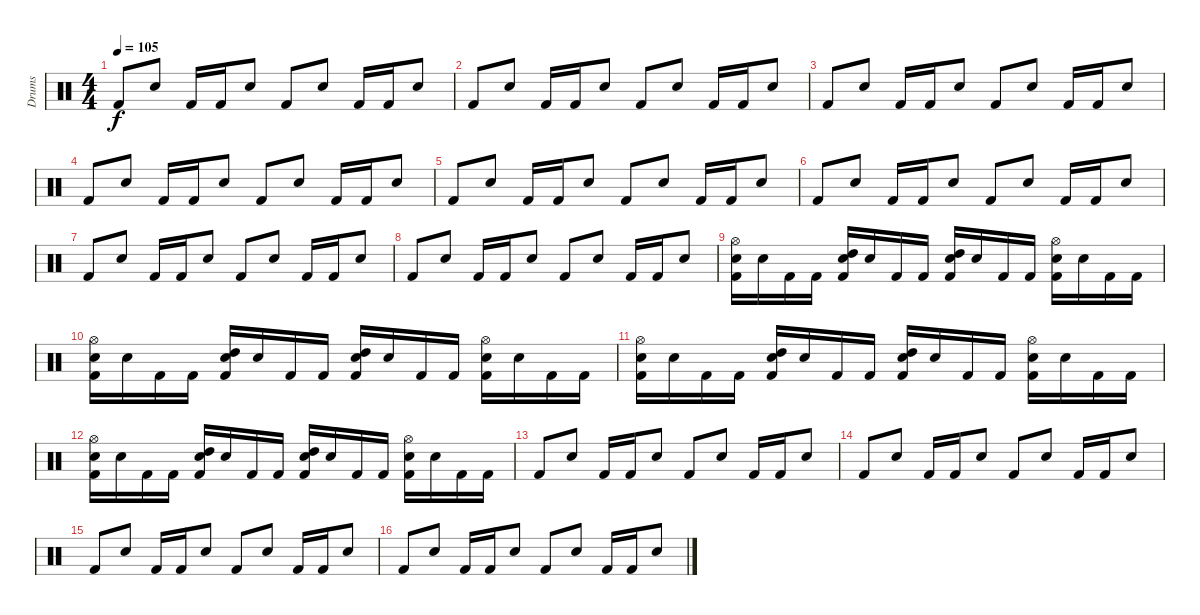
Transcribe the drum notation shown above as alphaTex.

\track ("Drums" "Drums") {instrument percussion}
\staff {score}
\articulation defaults
\ts (4 4)
\tempo 105
\clef neutral
\ks c "Kick (hit) 2".8{dy f} "Snare (hit) 2".8 "Kick (hit) 2".16 "Kick (hit) 2".16 "Snare (hit) 2".8 "Kick (hit) 2".8 "Snare (hit) 2".8 "Kick (hit) 2".16 "Kick (hit) 2".16 "Snare (hit) 2".8
|
"Kick (hit) 2".8 "Snare (hit) 2".8 "Kick (hit) 2".16 "Kick (hit) 2".16 "Snare (hit) 2".8 "Kick (hit) 2".8 "Snare (hit) 2".8 "Kick (hit) 2".16 "Kick (hit) 2".16 "Snare (hit) 2".8 |
"Kick (hit) 2".8 "Snare (hit) 2".8 "Kick (hit) 2".16 "Kick (hit) 2".16 "Snare (hit) 2".8 "Kick (hit) 2".8 "Snare (hit) 2".8 "Kick (hit) 2".16 "Kick (hit) 2".16 "Snare (hit) 2".8 |
"Kick (hit) 2".8 "Snare (hit) 2".8 "Kick (hit) 2".16 "Kick (hit) 2".16 "Snare (hit) 2".8 "Kick (hit) 2".8 "Snare (hit) 2".8 "Kick (hit) 2".16 "Kick (hit) 2".16 "Snare (hit) 2".8 |
"Kick (hit) 2".8 "Snare (hit) 2".8 "Kick (hit) 2".16 "Kick (hit) 2".16 "Snare (hit) 2".8 "Kick (hit) 2".8 "Snare (hit) 2".8 "Kick (hit) 2".16 "Kick (hit) 2".16 "Snare (hit) 2".8 |
"Kick (hit) 2".8 "Snare (hit) 2".8 "Kick (hit) 2".16 "Kick (hit) 2".16 "Snare (hit) 2".8 "Kick (hit) 2".8 "Snare (hit) 2".8 "Kick (hit) 2".16 "Kick (hit) 2".16 "Snare (hit) 2".8 |
"Kick (hit) 2".8 "Snare (hit) 2".8 "Kick (hit) 2".16 "Kick (hit) 2".16 "Snare (hit) 2".8 "Kick (hit) 2".8 "Snare (hit) 2".8 "Kick (hit) 2".16 "Kick (hit) 2".16 "Snare (hit) 2".8 |
"Kick (hit) 2".8 "Snare (hit) 2".8 "Kick (hit) 2".16 "Kick (hit) 2".16 "Snare (hit) 2".8 "Kick (hit) 2".8 "Snare (hit) 2".8 "Kick (hit) 2".16 "Kick (hit) 2".16 "Snare (hit) 2".8 |
("Kick (hit) 2" "Snare (hit) 2" "Hi-Hat (open)").16 "Snare (hit) 2".16 "Kick (hit) 2".16 "Kick (hit) 2".16 ("Kick (hit) 2" "Snare (hit) 2" "High Tom (hit)").16 "Snare (hit) 2".16 "Kick (hit) 2".16 "Kick (hit) 2".16 ("Kick (hit) 2" "Snare (hit) 2" "High Tom (hit)").16 "Snare (hit) 2".16 "Kick (hit) 2".16 "Kick (hit) 2".16 ("Kick (hit) 2" "Snare (hit) 2" "Hi-Hat (open)").16 "Snare (hit) 2".16 "Kick (hit) 2".16 "Kick (hit) 2".16 |
("Kick (hit) 2" "Snare (hit) 2" "Hi-Hat (open)").16 "Snare (hit) 2".16 "Kick (hit) 2".16 "Kick (hit) 2".16 ("Kick (hit) 2" "Snare (hit) 2" "High Tom (hit)").16 "Snare (hit) 2".16 "Kick (hit) 2".16 "Kick (hit) 2".16 ("Kick (hit) 2" "Snare (hit) 2" "High Tom (hit)").16 "Snare (hit) 2".16 "Kick (hit) 2".16 "Kick (hit) 2".16 ("Kick (hit) 2" "Snare (hit) 2" "Hi-Hat (open)").16 "Snare (hit) 2".16 "Kick (hit) 2".16 "Kick (hit) 2".16 |
("Kick (hit) 2" "Snare (hit) 2" "Hi-Hat (open)").16 "Snare (hit) 2".16 "Kick (hit) 2".16 "Kick (hit) 2".16 ("Kick (hit) 2" "Snare (hit) 2" "High Tom (hit)").16 "Snare (hit) 2".16 "Kick (hit) 2".16 "Kick (hit) 2".16 ("Kick (hit) 2" "Snare (hit) 2" "High Tom (hit)").16 "Snare (hit) 2".16 "Kick (hit) 2".16 "Kick (hit) 2".16 ("Kick (hit) 2" "Snare (hit) 2" "Hi-Hat (open)").16 "Snare (hit) 2".16 "Kick (hit) 2".16 "Kick (hit) 2".16 |
("Kick (hit) 2" "Snare (hit) 2" "Hi-Hat (open)").16 "Snare (hit) 2".16 "Kick (hit) 2".16 "Kick (hit) 2".16 ("Kick (hit) 2" "Snare (hit) 2" "High Tom (hit)").16 "Snare (hit) 2".16 "Kick (hit) 2".16 "Kick (hit) 2".16 ("Kick (hit) 2" "Snare (hit) 2" "High Tom (hit)").16 "Snare (hit) 2".16 "Kick (hit) 2".16 "Kick (hit) 2".16 ("Kick (hit) 2" "Snare (hit) 2" "Hi-Hat (open)").16 "Snare (hit) 2".16 "Kick (hit) 2".16 "Kick (hit) 2".16 |
"Kick (hit) 2".8 "Snare (hit) 2".8 "Kick (hit) 2".16 "Kick (hit) 2".16 "Snare (hit) 2".8 "Kick (hit) 2".8 "Snare (hit) 2".8 "Kick (hit) 2".16 "Kick (hit) 2".16 "Snare (hit) 2".8 |
"Kick (hit) 2".8 "Snare (hit) 2".8 "Kick (hit) 2".16 "Kick (hit) 2".16 "Snare (hit) 2".8 "Kick (hit) 2".8 "Snare (hit) 2".8 "Kick (hit) 2".16 "Kick (hit) 2".16 "Snare (hit) 2".8 |
"Kick (hit) 2".8 "Snare (hit) 2".8 "Kick (hit) 2".16 "Kick (hit) 2".16 "Snare (hit) 2".8 "Kick (hit) 2".8 "Snare (hit) 2".8 "Kick (hit) 2".16 "Kick (hit) 2".16 "Snare (hit) 2".8 |
"Kick (hit) 2".8 "Snare (hit) 2".8 "Kick (hit) 2".16 "Kick (hit) 2".16 "Snare (hit) 2".8 "Kick (hit) 2".8 "Snare (hit) 2".8 "Kick (hit) 2".16 "Kick (hit) 2".16 "Snare (hit) 2".8
